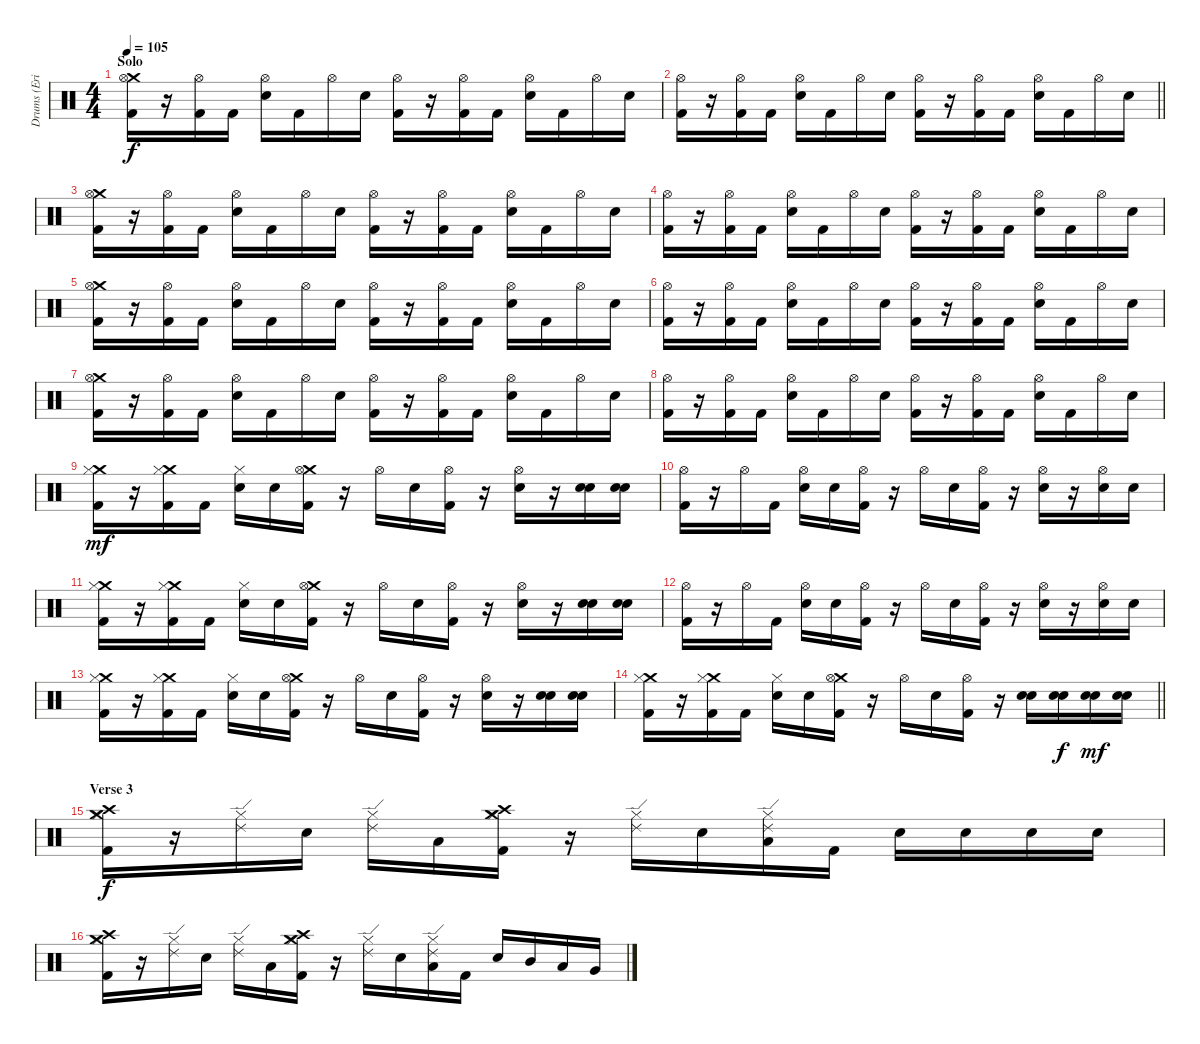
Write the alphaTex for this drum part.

\track ("Drums (Eric Kretz)" "Drums (Eri") {instrument percussion}
\staff {score}
\articulation defaults
\ts (4 4)
\section ("" "Solo")
\tempo 105
\clef neutral
\ks c
("Crash medium (hit)" "Hi-Hat (open)" "Kick (hit) 2").16{dy f} r.16 ("Hi-Hat (open)" "Kick (hit) 2").16 "Kick (hit) 2".16 ("Hi-Hat (open)" "Electric Snare (hit)").16 "Kick (hit) 2".16 "Hi-Hat (open)".16 "Electric Snare (hit)".16 ("Hi-Hat (open)" "Kick (hit) 2").16 r.16 ("Hi-Hat (open)" "Kick (hit) 2").16 "Kick (hit) 2".16 ("Hi-Hat (open)" "Electric Snare (hit)").16 "Kick (hit) 2".16 "Hi-Hat (open)".16 "Electric Snare (hit)".16 |
\barLineRight lightlight
("Hi-Hat (open)" "Kick (hit) 2").16 r.16 ("Hi-Hat (open)" "Kick (hit) 2").16 "Kick (hit) 2".16 ("Hi-Hat (open)" "Electric Snare (hit)").16 "Kick (hit) 2".16 "Hi-Hat (open)".16 "Electric Snare (hit)".16 ("Hi-Hat (open)" "Kick (hit) 2").16 r.16 ("Hi-Hat (open)" "Kick (hit) 2").16 "Kick (hit) 2".16 ("Hi-Hat (open)" "Electric Snare (hit)").16 "Kick (hit) 2".16 "Hi-Hat (open)".16 "Electric Snare (hit)".16 |
("Crash medium (hit)" "Hi-Hat (open)" "Kick (hit) 2").16 r.16 ("Hi-Hat (open)" "Kick (hit) 2").16 "Kick (hit) 2".16 ("Hi-Hat (open)" "Electric Snare (hit)").16 "Kick (hit) 2".16 "Hi-Hat (open)".16 "Electric Snare (hit)".16 ("Hi-Hat (open)" "Kick (hit) 2").16 r.16 ("Hi-Hat (open)" "Kick (hit) 2").16 "Kick (hit) 2".16 ("Hi-Hat (open)" "Electric Snare (hit)").16 "Kick (hit) 2".16 "Hi-Hat (open)".16 "Electric Snare (hit)".16 |
("Hi-Hat (open)" "Kick (hit) 2").16 r.16 ("Hi-Hat (open)" "Kick (hit) 2").16 "Kick (hit) 2".16 ("Hi-Hat (open)" "Electric Snare (hit)").16 "Kick (hit) 2".16 "Hi-Hat (open)".16 "Electric Snare (hit)".16 ("Hi-Hat (open)" "Kick (hit) 2").16 r.16 ("Hi-Hat (open)" "Kick (hit) 2").16 "Kick (hit) 2".16 ("Hi-Hat (open)" "Electric Snare (hit)").16 "Kick (hit) 2".16 "Hi-Hat (open)".16 "Electric Snare (hit)".16 |
("Crash medium (hit)" "Hi-Hat (open)" "Kick (hit) 2").16 r.16 ("Hi-Hat (open)" "Kick (hit) 2").16 "Kick (hit) 2".16 ("Hi-Hat (open)" "Electric Snare (hit)").16 "Kick (hit) 2".16 "Hi-Hat (open)".16 "Electric Snare (hit)".16 ("Hi-Hat (open)" "Kick (hit) 2").16 r.16 ("Hi-Hat (open)" "Kick (hit) 2").16 "Kick (hit) 2".16 ("Hi-Hat (open)" "Electric Snare (hit)").16 "Kick (hit) 2".16 "Hi-Hat (open)".16 "Electric Snare (hit)".16 |
("Hi-Hat (open)" "Kick (hit) 2").16 r.16 ("Hi-Hat (open)" "Kick (hit) 2").16 "Kick (hit) 2".16 ("Hi-Hat (open)" "Electric Snare (hit)").16 "Kick (hit) 2".16 "Hi-Hat (open)".16 "Electric Snare (hit)".16 ("Hi-Hat (open)" "Kick (hit) 2").16 r.16 ("Hi-Hat (open)" "Kick (hit) 2").16 "Kick (hit) 2".16 ("Hi-Hat (open)" "Electric Snare (hit)").16 "Kick (hit) 2".16 "Hi-Hat (open)".16 "Electric Snare (hit)".16 |
("Crash medium (hit)" "Hi-Hat (open)" "Kick (hit) 2").16 r.16 ("Hi-Hat (open)" "Kick (hit) 2").16 "Kick (hit) 2".16 ("Hi-Hat (open)" "Electric Snare (hit)").16 "Kick (hit) 2".16 "Hi-Hat (open)".16 "Electric Snare (hit)".16 ("Hi-Hat (open)" "Kick (hit) 2").16 r.16 ("Hi-Hat (open)" "Kick (hit) 2").16 "Kick (hit) 2".16 ("Hi-Hat (open)" "Electric Snare (hit)").16 "Kick (hit) 2".16 "Hi-Hat (open)".16 "Electric Snare (hit)".16 |
("Hi-Hat (open)" "Kick (hit) 2").16 r.16 ("Hi-Hat (open)" "Kick (hit) 2").16 "Kick (hit) 2".16 ("Hi-Hat (open)" "Electric Snare (hit)").16 "Kick (hit) 2".16 "Hi-Hat (open)".16 "Electric Snare (hit)".16 ("Hi-Hat (open)" "Kick (hit) 2").16 r.16 ("Hi-Hat (open)" "Kick (hit) 2").16 "Kick (hit) 2".16 ("Hi-Hat (open)" "Electric Snare (hit)").16 "Kick (hit) 2".16 "Hi-Hat (open)".16 "Electric Snare (hit)".16 |
("Crash medium (hit)" "Hi-Hat (closed)" "Kick (hit) 2").16{dy mf} r.16 ("Crash medium (hit)" "Hi-Hat (closed)" "Kick (hit) 2").16 "Kick (hit) 2".16 ("Hi-Hat (closed)" "Electric Snare (hit)").16 "Electric Snare (hit)".16 ("Crash medium (hit)" "Hi-Hat (open)" "Kick (hit) 2").16 r.16 "Hi-Hat (open)".16 "Electric Snare (hit)".16 ("Hi-Hat (open)" "Kick (hit) 2").16 r.16 ("Hi-Hat (open)" "Electric Snare (hit)").16 r.16 ("Snare (hit) 2" "Electric Snare (hit)").16 ("Snare (hit) 2" "Electric Snare (hit)").16 |
("Hi-Hat (open)" "Kick (hit) 2").16 r.16 "Hi-Hat (open)".16 "Kick (hit) 2".16 ("Hi-Hat (open)" "Electric Snare (hit)").16 "Electric Snare (hit)".16 ("Hi-Hat (open)" "Kick (hit) 2").16 r.16 "Hi-Hat (open)".16 "Electric Snare (hit)".16 ("Hi-Hat (open)" "Kick (hit) 2").16 r.16 ("Hi-Hat (open)" "Electric Snare (hit)").16 r.16 ("Hi-Hat (open)" "Electric Snare (hit)").16 "Electric Snare (hit)".16 |
("Crash medium (hit)" "Hi-Hat (closed)" "Kick (hit) 2").16 r.16 ("Crash medium (hit)" "Hi-Hat (closed)" "Kick (hit) 2").16 "Kick (hit) 2".16 ("Hi-Hat (closed)" "Electric Snare (hit)").16 "Electric Snare (hit)".16 ("Crash medium (hit)" "Hi-Hat (open)" "Kick (hit) 2").16 r.16 "Hi-Hat (open)".16 "Electric Snare (hit)".16 ("Hi-Hat (open)" "Kick (hit) 2").16 r.16 ("Hi-Hat (open)" "Electric Snare (hit)").16 r.16 ("Snare (hit) 2" "Electric Snare (hit)").16 ("Snare (hit) 2" "Electric Snare (hit)").16 |
("Hi-Hat (open)" "Kick (hit) 2").16 r.16 "Hi-Hat (open)".16 "Kick (hit) 2".16 ("Hi-Hat (open)" "Electric Snare (hit)").16 "Electric Snare (hit)".16 ("Hi-Hat (open)" "Kick (hit) 2").16 r.16 "Hi-Hat (open)".16 "Electric Snare (hit)".16 ("Hi-Hat (open)" "Kick (hit) 2").16 r.16 ("Hi-Hat (open)" "Electric Snare (hit)").16 r.16 ("Hi-Hat (open)" "Electric Snare (hit)").16 "Electric Snare (hit)".16 |
("Crash medium (hit)" "Hi-Hat (closed)" "Kick (hit) 2").16 r.16 ("Crash medium (hit)" "Hi-Hat (closed)" "Kick (hit) 2").16 "Kick (hit) 2".16 ("Hi-Hat (closed)" "Electric Snare (hit)").16 "Electric Snare (hit)".16 ("Crash medium (hit)" "Hi-Hat (open)" "Kick (hit) 2").16 r.16 "Hi-Hat (open)".16 "Electric Snare (hit)".16 ("Hi-Hat (open)" "Kick (hit) 2").16 r.16 ("Hi-Hat (open)" "Electric Snare (hit)").16 r.16 ("Snare (hit) 2" "Electric Snare (hit)").16 ("Snare (hit) 2" "Electric Snare (hit)").16 |
\barLineRight lightlight
("Crash medium (hit)" "Hi-Hat (closed)" "Kick (hit) 2").16 r.16 ("Crash medium (hit)" "Hi-Hat (closed)" "Kick (hit) 2").16 "Kick (hit) 2".16 ("Hi-Hat (closed)" "Electric Snare (hit)").16 "Electric Snare (hit)".16 ("Crash medium (hit)" "Hi-Hat (open)" "Kick (hit) 2").16 r.16 "Hi-Hat (open)".16 "Electric Snare (hit)".16 ("Hi-Hat (open)" "Kick (hit) 2").16 r.16 ("Snare (hit) 2" "Electric Snare (hit)").16 ("Snare (hit) 2" "Electric Snare (hit)").16{dy f} ("Snare (hit) 2" "Electric Snare (hit)").16{dy mf} ("Snare (hit) 2" "Electric Snare (hit)").16 |
\section ("" "Verse 3")
("Crash medium (hit)" "Crash high (hit)" "Hi-Hat (closed)" "Kick (hit) 2").16{dy f} r.16 ("Ride (edge) 2" "Hi-Hat (closed)").16 "Electric Snare (hit)".16 ("Ride (edge) 2" "Hi-Hat (closed)").16 "Low Tom (hit)".16 ("Crash medium (hit)" "Crash high (hit)" "Hi-Hat (closed)" "Kick (hit) 2").16 r.16 ("Ride (edge) 2" "Hi-Hat (closed)").16 "Electric Snare (hit)".16 ("Ride (edge) 2" "Hi-Hat (closed)" "Low Tom (hit)").16 "Kick (hit) 2".16 "Electric Snare (hit)".16 "Electric Snare (hit)".16 "Electric Snare (hit)".16 "Electric Snare (hit)".16 |
("Crash medium (hit)" "Crash high (hit)" "Hi-Hat (closed)" "Kick (hit) 2").16 r.16 ("Ride (edge) 2" "Hi-Hat (closed)").16 "Electric Snare (hit)".16 ("Ride (edge) 2" "Hi-Hat (closed)").16 "Low Tom (hit)".16 ("Crash medium (hit)" "Crash high (hit)" "Hi-Hat (closed)" "Kick (hit) 2").16 r.16 ("Ride (edge) 2" "Hi-Hat (closed)").16 "Electric Snare (hit)".16 ("Ride (edge) 2" "Hi-Hat (closed)" "Low Tom (hit)").16 "Kick (hit) 2".16 "Electric Snare (hit)".16 "Mid Tom (hit)".16 "Low Tom (hit)".16 "Very Low Tom (hit)".16
